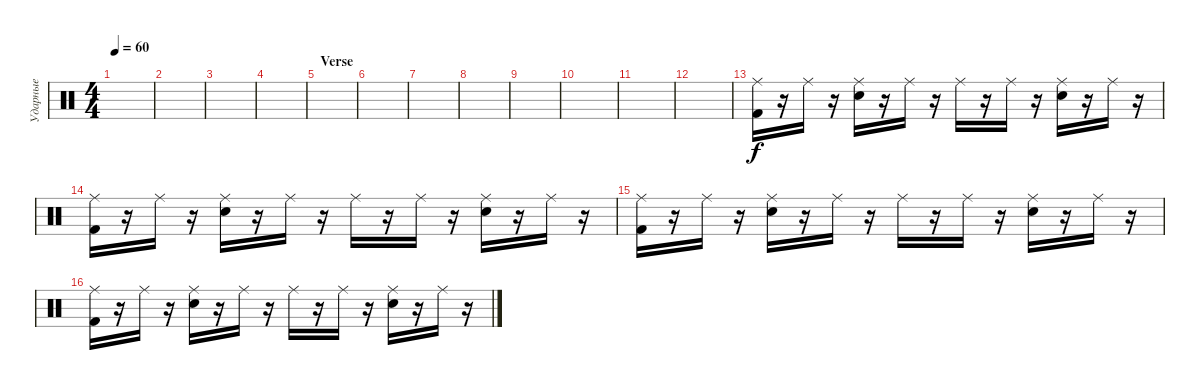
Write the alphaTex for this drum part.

\track ("Ударные" "Ударные") {instrument percussion}
\staff {score}
\articulation defaults
\ts (4 4)
\tempo 60
\clef neutral
\ks c
|
|
|
|
\section ("" "Verse")
|
|
|
|
|
|
|
|
("Ride (middle)" "Kick (hit) 2").16 r.16 "Ride (middle)".16 r.16 ("Ride (middle)" "Electric Snare (hit)").16 r.16 "Ride (middle)".16 r.16 "Ride (middle)".16 r.16 "Ride (middle)".16 r.16 ("Ride (middle)" "Electric Snare (hit)").16 r.16 "Ride (middle)".16 r.16 |
("Ride (middle)" "Kick (hit) 2").16 r.16 "Ride (middle)".16 r.16 ("Ride (middle)" "Electric Snare (hit)").16 r.16 "Ride (middle)".16 r.16 "Ride (middle)".16 r.16 "Ride (middle)".16 r.16 ("Ride (middle)" "Electric Snare (hit)").16 r.16 "Ride (middle)".16 r.16 |
("Ride (middle)" "Kick (hit) 2").16 r.16 "Ride (middle)".16 r.16 ("Ride (middle)" "Electric Snare (hit)").16 r.16 "Ride (middle)".16 r.16 "Ride (middle)".16 r.16 "Ride (middle)".16 r.16 ("Ride (middle)" "Electric Snare (hit)").16 r.16 "Ride (middle)".16 r.16 |
("Ride (middle)" "Kick (hit) 2").16 r.16 "Ride (middle)".16 r.16 ("Ride (middle)" "Electric Snare (hit)").16 r.16 "Ride (middle)".16 r.16 "Ride (middle)".16 r.16 "Ride (middle)".16 r.16 ("Ride (middle)" "Electric Snare (hit)").16 r.16 "Ride (middle)".16 r.16
